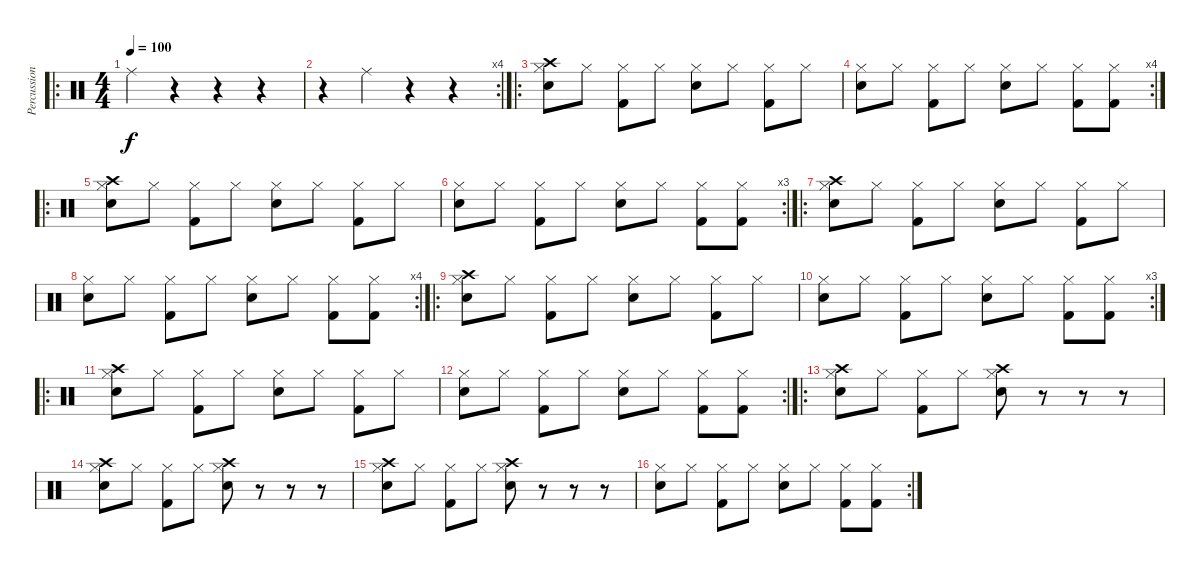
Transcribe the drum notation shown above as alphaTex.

\track ("Percussions" "Percussion") {instrument percussion}
\staff {score}
\articulation defaults
\ro
\ts (4 4)
\tempo 100
\clef neutral
\ks c "Ride (middle)".4{dy f}
r.4 r.4 r.4 |
\rc 4
r.4 "Ride (middle)".4 r.4 r.4 |
\ro
("Crash high (hit)" "Hi-Hat (closed)" "Electric Snare (hit)").8 "Hi-Hat (closed)".8 ("Hi-Hat (closed)" "Kick (hit) 2").8 "Hi-Hat (closed)".8 ("Hi-Hat (closed)" "Electric Snare (hit)").8 "Hi-Hat (closed)".8 ("Hi-Hat (closed)" "Kick (hit) 2").8 "Hi-Hat (closed)".8 |
\rc 4
("Hi-Hat (closed)" "Electric Snare (hit)").8 "Hi-Hat (closed)".8 ("Hi-Hat (closed)" "Kick (hit) 2").8 "Hi-Hat (closed)".8 ("Hi-Hat (closed)" "Electric Snare (hit)").8 "Hi-Hat (closed)".8 ("Hi-Hat (closed)" "Kick (hit) 2").8 ("Hi-Hat (closed)" "Kick (hit) 2").8 |
\ro
("Crash high (hit)" "Hi-Hat (closed)" "Electric Snare (hit)").8 "Hi-Hat (closed)".8 ("Hi-Hat (closed)" "Kick (hit) 2").8 "Hi-Hat (closed)".8 ("Hi-Hat (closed)" "Electric Snare (hit)").8 "Hi-Hat (closed)".8 ("Hi-Hat (closed)" "Kick (hit) 2").8 "Hi-Hat (closed)".8 |
\rc 3
("Hi-Hat (closed)" "Electric Snare (hit)").8 "Hi-Hat (closed)".8 ("Hi-Hat (closed)" "Kick (hit) 2").8 "Hi-Hat (closed)".8 ("Hi-Hat (closed)" "Electric Snare (hit)").8 "Hi-Hat (closed)".8 ("Hi-Hat (closed)" "Kick (hit) 2").8 ("Hi-Hat (closed)" "Kick (hit) 2").8 |
\ro
("Crash high (hit)" "Hi-Hat (closed)" "Electric Snare (hit)").8 "Hi-Hat (closed)".8 ("Hi-Hat (closed)" "Kick (hit) 2").8 "Hi-Hat (closed)".8 ("Hi-Hat (closed)" "Electric Snare (hit)").8 "Hi-Hat (closed)".8 ("Hi-Hat (closed)" "Kick (hit) 2").8 "Hi-Hat (closed)".8 |
\rc 4
("Hi-Hat (closed)" "Electric Snare (hit)").8 "Hi-Hat (closed)".8 ("Hi-Hat (closed)" "Kick (hit) 2").8 "Hi-Hat (closed)".8 ("Hi-Hat (closed)" "Electric Snare (hit)").8 "Hi-Hat (closed)".8 ("Hi-Hat (closed)" "Kick (hit) 2").8 ("Hi-Hat (closed)" "Kick (hit) 2").8 |
\ro
("Crash high (hit)" "Hi-Hat (closed)" "Electric Snare (hit)").8 "Hi-Hat (closed)".8 ("Hi-Hat (closed)" "Kick (hit) 2").8 "Hi-Hat (closed)".8 ("Hi-Hat (closed)" "Electric Snare (hit)").8 "Hi-Hat (closed)".8 ("Hi-Hat (closed)" "Kick (hit) 2").8 "Hi-Hat (closed)".8 |
\rc 3
("Hi-Hat (closed)" "Electric Snare (hit)").8 "Hi-Hat (closed)".8 ("Hi-Hat (closed)" "Kick (hit) 2").8 "Hi-Hat (closed)".8 ("Hi-Hat (closed)" "Electric Snare (hit)").8 "Hi-Hat (closed)".8 ("Hi-Hat (closed)" "Kick (hit) 2").8 ("Hi-Hat (closed)" "Kick (hit) 2").8 |
\ro
("Crash high (hit)" "Hi-Hat (closed)" "Electric Snare (hit)").8 "Hi-Hat (closed)".8 ("Hi-Hat (closed)" "Kick (hit) 2").8 "Hi-Hat (closed)".8 ("Hi-Hat (closed)" "Electric Snare (hit)").8 "Hi-Hat (closed)".8 ("Hi-Hat (closed)" "Kick (hit) 2").8 "Hi-Hat (closed)".8 |
\rc 2
("Hi-Hat (closed)" "Electric Snare (hit)").8 "Hi-Hat (closed)".8 ("Hi-Hat (closed)" "Kick (hit) 2").8 "Hi-Hat (closed)".8 ("Hi-Hat (closed)" "Electric Snare (hit)").8 "Hi-Hat (closed)".8 ("Hi-Hat (closed)" "Kick (hit) 2").8 ("Hi-Hat (closed)" "Kick (hit) 2").8 |
\ro
("Crash high (hit)" "Hi-Hat (closed)" "Electric Snare (hit)").8 "Hi-Hat (closed)".8 ("Hi-Hat (closed)" "Kick (hit) 2").8 "Hi-Hat (closed)".8 ("Crash high (hit)" "Hi-Hat (closed)" "Electric Snare (hit)").8 r.8 r.8 r.8 |
("Crash high (hit)" "Hi-Hat (closed)" "Electric Snare (hit)").8 "Hi-Hat (closed)".8 ("Hi-Hat (closed)" "Kick (hit) 2").8 "Hi-Hat (closed)".8 ("Crash high (hit)" "Hi-Hat (closed)" "Electric Snare (hit)").8 r.8 r.8 r.8 |
("Crash high (hit)" "Hi-Hat (closed)" "Electric Snare (hit)").8 "Hi-Hat (closed)".8 ("Hi-Hat (closed)" "Kick (hit) 2").8 "Hi-Hat (closed)".8 ("Crash high (hit)" "Hi-Hat (closed)" "Electric Snare (hit)").8 r.8 r.8 r.8 |
\rc 2
("Hi-Hat (closed)" "Electric Snare (hit)").8 "Hi-Hat (closed)".8 ("Hi-Hat (closed)" "Kick (hit) 2").8 "Hi-Hat (closed)".8 ("Hi-Hat (closed)" "Electric Snare (hit)").8 "Hi-Hat (closed)".8 ("Hi-Hat (closed)" "Kick (hit) 2").8 ("Hi-Hat (closed)" "Kick (hit) 2").8
